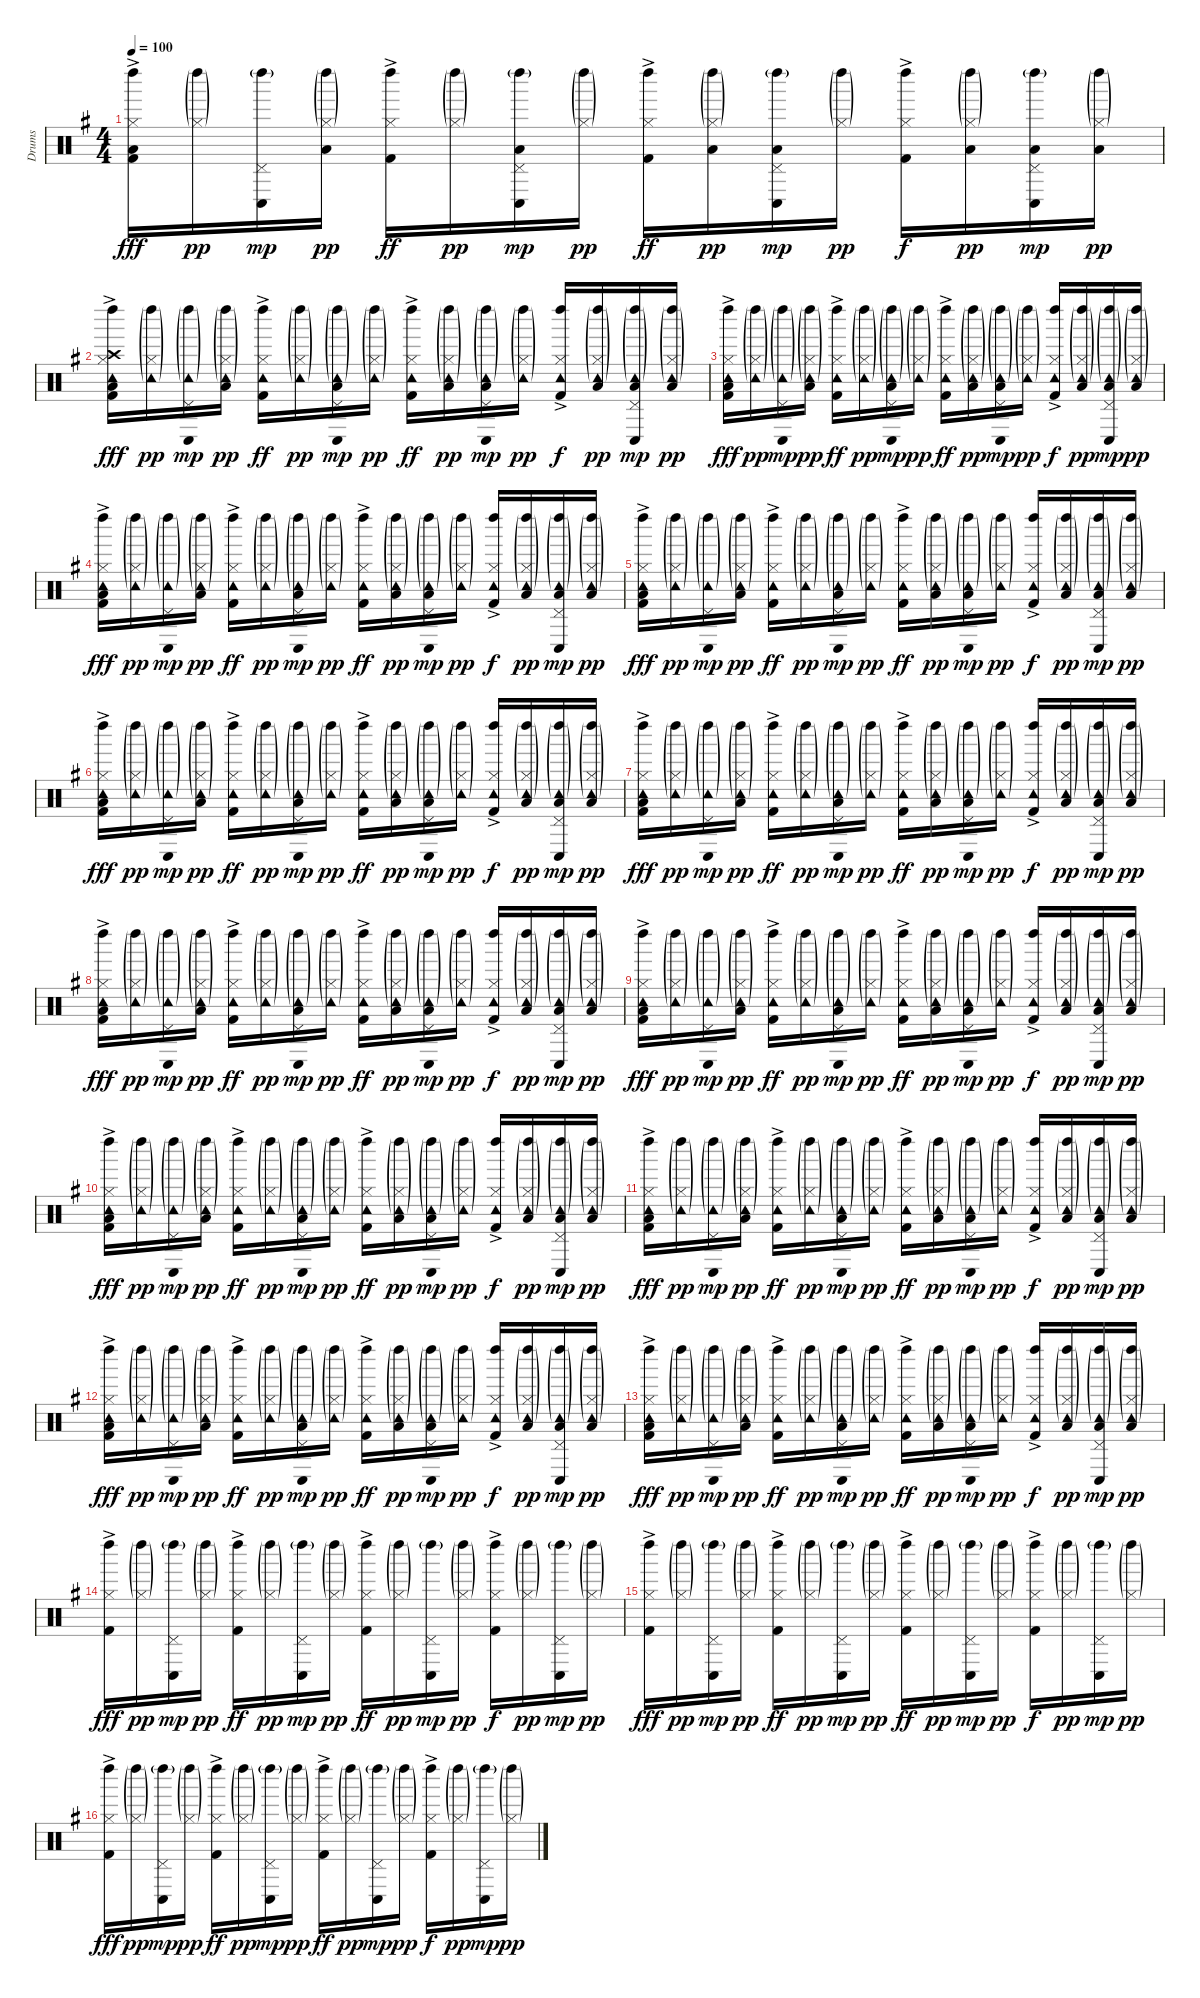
\track ("Drums" "Drums") {instrument percussion}
\staff {score}
\articulation defaults
\ts (4 4)
\tempo 100
\clef neutral
\ks g
("Kick (hit) 2"{ac} "Low Floor Tom (hit)" "Hi-Hat (closed)" "Left Maraca (hit)").16{dy fff} ("Hi-Hat (closed)"{g} "Left Maraca (hit)"{g}).16{dy pp} ("Conga low (hit)" "Pedal Hi-Hat (hit)" "Left Maraca (hit)"{g}).16{dy mp} ("Low Floor Tom (hit)" "Hi-Hat (closed)"{g} "Left Maraca (hit)"{g}).16{dy pp} ("Kick (hit) 2"{ac} "Hi-Hat (closed)" "Left Maraca (hit)").16{dy ff} ("Hi-Hat (closed)"{g} "Left Maraca (hit)"{g}).16{dy pp} ("Low Floor Tom (hit)" "Conga low (hit)" "Pedal Hi-Hat (hit)" "Left Maraca (hit)"{g}).16{dy mp} ("Hi-Hat (closed)"{g} "Left Maraca (hit)"{g}).16{dy pp} ("Kick (hit) 2"{ac} "Hi-Hat (closed)" "Left Maraca (hit)").16{dy ff} ("Low Floor Tom (hit)" "Hi-Hat (closed)"{g} "Left Maraca (hit)"{g}).16{dy pp} ("Low Floor Tom (hit)" "Conga low (hit)" "Pedal Hi-Hat (hit)" "Left Maraca (hit)"{g}).16{dy mp} ("Hi-Hat (closed)"{g} "Left Maraca (hit)"{g}).16{dy pp} ("Kick (hit) 2"{ac} "Hi-Hat (closed)" "Left Maraca (hit)").16{dy f} ("Low Floor Tom (hit)" "Hi-Hat (closed)"{g} "Left Maraca (hit)"{g}).16{dy pp} ("Low Floor Tom (hit)" "Conga low (hit)" "Pedal Hi-Hat (hit)" "Left Maraca (hit)"{g}).16{dy mp} ("Low Floor Tom (hit)" "Hi-Hat (closed)"{g} "Left Maraca (hit)"{g}).16{dy pp} |
("Kick (hit) 2"{ac} "Low Floor Tom (hit)" "Crash high (hit)" "Hi-Hat (closed)" "Tambourine (hit)" "Left Maraca (hit)").16{dy fff} ("Hi-Hat (closed)"{g} "Tambourine (hit)"{g} "Left Maraca (hit)"{g}).16{dy pp} ("Conga low (hit)" "Pedal Hi-Hat (hit)" "Tambourine (hit)"{g} "Left Maraca (hit)"{g}).16{dy mp} ("Low Floor Tom (hit)" "Hi-Hat (closed)"{g} "Tambourine (hit)"{g} "Left Maraca (hit)"{g}).16{dy pp} ("Kick (hit) 2"{ac} "Hi-Hat (closed)" "Tambourine (hit)" "Left Maraca (hit)").16{dy ff} ("Hi-Hat (closed)"{g} "Tambourine (hit)"{g} "Left Maraca (hit)"{g}).16{dy pp} ("Low Floor Tom (hit)" "Conga low (hit)" "Pedal Hi-Hat (hit)" "Tambourine (hit)"{g} "Left Maraca (hit)"{g}).16{dy mp} ("Hi-Hat (closed)"{g} "Tambourine (hit)"{g} "Left Maraca (hit)"{g}).16{dy pp} ("Kick (hit) 2"{ac} "Hi-Hat (closed)" "Tambourine (hit)" "Left Maraca (hit)").16{dy ff} ("Low Floor Tom (hit)" "Hi-Hat (closed)"{g} "Tambourine (hit)"{g} "Left Maraca (hit)"{g}).16{dy pp} ("Low Floor Tom (hit)" "Conga low (hit)" "Pedal Hi-Hat (hit)" "Tambourine (hit)"{g} "Left Maraca (hit)"{g}).16{dy mp} ("Hi-Hat (closed)"{g} "Tambourine (hit)"{g} "Left Maraca (hit)"{g}).16{dy pp} ("Kick (hit) 2"{ac} "Hi-Hat (closed)" "Tambourine (hit)" "Left Maraca (hit)").16{dy f} ("Low Floor Tom (hit)" "Hi-Hat (closed)"{g} "Tambourine (hit)"{g} "Left Maraca (hit)"{g}).16{dy pp} ("Low Floor Tom (hit)" "Conga low (hit)" "Pedal Hi-Hat (hit)" "Tambourine (hit)"{g} "Left Maraca (hit)"{g}).16{dy mp} ("Low Floor Tom (hit)" "Hi-Hat (closed)"{g} "Tambourine (hit)"{g} "Left Maraca (hit)"{g}).16{dy pp} |
("Kick (hit) 2"{ac} "Low Floor Tom (hit)" "Hi-Hat (closed)" "Tambourine (hit)" "Left Maraca (hit)").16{dy fff} ("Hi-Hat (closed)"{g} "Tambourine (hit)"{g} "Left Maraca (hit)"{g}).16{dy pp} ("Conga low (hit)" "Pedal Hi-Hat (hit)" "Tambourine (hit)"{g} "Left Maraca (hit)"{g}).16{dy mp} ("Low Floor Tom (hit)" "Hi-Hat (closed)"{g} "Tambourine (hit)"{g} "Left Maraca (hit)"{g}).16{dy pp} ("Kick (hit) 2"{ac} "Hi-Hat (closed)" "Tambourine (hit)" "Left Maraca (hit)").16{dy ff} ("Hi-Hat (closed)"{g} "Tambourine (hit)"{g} "Left Maraca (hit)"{g}).16{dy pp} ("Low Floor Tom (hit)" "Conga low (hit)" "Pedal Hi-Hat (hit)" "Tambourine (hit)"{g} "Left Maraca (hit)"{g}).16{dy mp} ("Hi-Hat (closed)"{g} "Tambourine (hit)"{g} "Left Maraca (hit)"{g}).16{dy pp} ("Kick (hit) 2"{ac} "Hi-Hat (closed)" "Tambourine (hit)" "Left Maraca (hit)").16{dy ff} ("Low Floor Tom (hit)" "Hi-Hat (closed)"{g} "Tambourine (hit)"{g} "Left Maraca (hit)"{g}).16{dy pp} ("Low Floor Tom (hit)" "Conga low (hit)" "Pedal Hi-Hat (hit)" "Tambourine (hit)"{g} "Left Maraca (hit)"{g}).16{dy mp} ("Hi-Hat (closed)"{g} "Tambourine (hit)"{g} "Left Maraca (hit)"{g}).16{dy pp} ("Kick (hit) 2"{ac} "Hi-Hat (closed)" "Tambourine (hit)" "Left Maraca (hit)").16{dy f} ("Low Floor Tom (hit)" "Hi-Hat (closed)"{g} "Tambourine (hit)"{g} "Left Maraca (hit)"{g}).16{dy pp} ("Low Floor Tom (hit)" "Conga low (hit)" "Pedal Hi-Hat (hit)" "Tambourine (hit)"{g} "Left Maraca (hit)"{g}).16{dy mp} ("Low Floor Tom (hit)" "Hi-Hat (closed)"{g} "Tambourine (hit)"{g} "Left Maraca (hit)"{g}).16{dy pp} |
("Kick (hit) 2"{ac} "Low Floor Tom (hit)" "Hi-Hat (closed)" "Tambourine (hit)" "Left Maraca (hit)").16{dy fff} ("Hi-Hat (closed)"{g} "Tambourine (hit)"{g} "Left Maraca (hit)"{g}).16{dy pp} ("Conga low (hit)" "Pedal Hi-Hat (hit)" "Tambourine (hit)"{g} "Left Maraca (hit)"{g}).16{dy mp} ("Low Floor Tom (hit)" "Hi-Hat (closed)"{g} "Tambourine (hit)"{g} "Left Maraca (hit)"{g}).16{dy pp} ("Kick (hit) 2"{ac} "Hi-Hat (closed)" "Tambourine (hit)" "Left Maraca (hit)").16{dy ff} ("Hi-Hat (closed)"{g} "Tambourine (hit)"{g} "Left Maraca (hit)"{g}).16{dy pp} ("Low Floor Tom (hit)" "Conga low (hit)" "Pedal Hi-Hat (hit)" "Tambourine (hit)"{g} "Left Maraca (hit)"{g}).16{dy mp} ("Hi-Hat (closed)"{g} "Tambourine (hit)"{g} "Left Maraca (hit)"{g}).16{dy pp} ("Kick (hit) 2"{ac} "Hi-Hat (closed)" "Tambourine (hit)" "Left Maraca (hit)").16{dy ff} ("Low Floor Tom (hit)" "Hi-Hat (closed)"{g} "Tambourine (hit)"{g} "Left Maraca (hit)"{g}).16{dy pp} ("Low Floor Tom (hit)" "Conga low (hit)" "Pedal Hi-Hat (hit)" "Tambourine (hit)"{g} "Left Maraca (hit)"{g}).16{dy mp} ("Hi-Hat (closed)"{g} "Tambourine (hit)"{g} "Left Maraca (hit)"{g}).16{dy pp} ("Kick (hit) 2"{ac} "Hi-Hat (closed)" "Tambourine (hit)" "Left Maraca (hit)").16{dy f} ("Low Floor Tom (hit)" "Hi-Hat (closed)"{g} "Tambourine (hit)"{g} "Left Maraca (hit)"{g}).16{dy pp} ("Low Floor Tom (hit)" "Conga low (hit)" "Pedal Hi-Hat (hit)" "Tambourine (hit)"{g} "Left Maraca (hit)"{g}).16{dy mp} ("Low Floor Tom (hit)" "Hi-Hat (closed)"{g} "Tambourine (hit)"{g} "Left Maraca (hit)"{g}).16{dy pp} |
("Kick (hit) 2"{ac} "Low Floor Tom (hit)" "Hi-Hat (closed)" "Tambourine (hit)" "Left Maraca (hit)").16{dy fff} ("Hi-Hat (closed)"{g} "Tambourine (hit)"{g} "Left Maraca (hit)"{g}).16{dy pp} ("Conga low (hit)" "Pedal Hi-Hat (hit)" "Tambourine (hit)"{g} "Left Maraca (hit)"{g}).16{dy mp} ("Low Floor Tom (hit)" "Hi-Hat (closed)"{g} "Tambourine (hit)"{g} "Left Maraca (hit)"{g}).16{dy pp} ("Kick (hit) 2"{ac} "Hi-Hat (closed)" "Tambourine (hit)" "Left Maraca (hit)").16{dy ff} ("Hi-Hat (closed)"{g} "Tambourine (hit)"{g} "Left Maraca (hit)"{g}).16{dy pp} ("Low Floor Tom (hit)" "Conga low (hit)" "Pedal Hi-Hat (hit)" "Tambourine (hit)"{g} "Left Maraca (hit)"{g}).16{dy mp} ("Hi-Hat (closed)"{g} "Tambourine (hit)"{g} "Left Maraca (hit)"{g}).16{dy pp} ("Kick (hit) 2"{ac} "Hi-Hat (closed)" "Tambourine (hit)" "Left Maraca (hit)").16{dy ff} ("Low Floor Tom (hit)" "Hi-Hat (closed)"{g} "Tambourine (hit)"{g} "Left Maraca (hit)"{g}).16{dy pp} ("Low Floor Tom (hit)" "Conga low (hit)" "Pedal Hi-Hat (hit)" "Tambourine (hit)"{g} "Left Maraca (hit)"{g}).16{dy mp} ("Hi-Hat (closed)"{g} "Tambourine (hit)"{g} "Left Maraca (hit)"{g}).16{dy pp} ("Kick (hit) 2"{ac} "Hi-Hat (closed)" "Tambourine (hit)" "Left Maraca (hit)").16{dy f} ("Low Floor Tom (hit)" "Hi-Hat (closed)"{g} "Tambourine (hit)"{g} "Left Maraca (hit)"{g}).16{dy pp} ("Low Floor Tom (hit)" "Conga low (hit)" "Pedal Hi-Hat (hit)" "Tambourine (hit)"{g} "Left Maraca (hit)"{g}).16{dy mp} ("Low Floor Tom (hit)" "Hi-Hat (closed)"{g} "Tambourine (hit)"{g} "Left Maraca (hit)"{g}).16{dy pp} |
("Kick (hit) 2"{ac} "Low Floor Tom (hit)" "Hi-Hat (closed)" "Tambourine (hit)" "Left Maraca (hit)").16{dy fff} ("Hi-Hat (closed)"{g} "Tambourine (hit)"{g} "Left Maraca (hit)"{g}).16{dy pp} ("Conga low (hit)" "Pedal Hi-Hat (hit)" "Tambourine (hit)"{g} "Left Maraca (hit)"{g}).16{dy mp} ("Low Floor Tom (hit)" "Hi-Hat (closed)"{g} "Tambourine (hit)"{g} "Left Maraca (hit)"{g}).16{dy pp} ("Kick (hit) 2"{ac} "Hi-Hat (closed)" "Tambourine (hit)" "Left Maraca (hit)").16{dy ff} ("Hi-Hat (closed)"{g} "Tambourine (hit)"{g} "Left Maraca (hit)"{g}).16{dy pp} ("Low Floor Tom (hit)" "Conga low (hit)" "Pedal Hi-Hat (hit)" "Tambourine (hit)"{g} "Left Maraca (hit)"{g}).16{dy mp} ("Hi-Hat (closed)"{g} "Tambourine (hit)"{g} "Left Maraca (hit)"{g}).16{dy pp} ("Kick (hit) 2"{ac} "Hi-Hat (closed)" "Tambourine (hit)" "Left Maraca (hit)").16{dy ff} ("Low Floor Tom (hit)" "Hi-Hat (closed)"{g} "Tambourine (hit)"{g} "Left Maraca (hit)"{g}).16{dy pp} ("Low Floor Tom (hit)" "Conga low (hit)" "Pedal Hi-Hat (hit)" "Tambourine (hit)"{g} "Left Maraca (hit)"{g}).16{dy mp} ("Hi-Hat (closed)"{g} "Tambourine (hit)"{g} "Left Maraca (hit)"{g}).16{dy pp} ("Kick (hit) 2"{ac} "Hi-Hat (closed)" "Tambourine (hit)" "Left Maraca (hit)").16{dy f} ("Low Floor Tom (hit)" "Hi-Hat (closed)"{g} "Tambourine (hit)"{g} "Left Maraca (hit)"{g}).16{dy pp} ("Low Floor Tom (hit)" "Conga low (hit)" "Pedal Hi-Hat (hit)" "Tambourine (hit)"{g} "Left Maraca (hit)"{g}).16{dy mp} ("Low Floor Tom (hit)" "Hi-Hat (closed)"{g} "Tambourine (hit)"{g} "Left Maraca (hit)"{g}).16{dy pp} |
("Kick (hit) 2"{ac} "Low Floor Tom (hit)" "Hi-Hat (closed)" "Tambourine (hit)" "Left Maraca (hit)").16{dy fff} ("Hi-Hat (closed)"{g} "Tambourine (hit)"{g} "Left Maraca (hit)"{g}).16{dy pp} ("Conga low (hit)" "Pedal Hi-Hat (hit)" "Tambourine (hit)"{g} "Left Maraca (hit)"{g}).16{dy mp} ("Low Floor Tom (hit)" "Hi-Hat (closed)"{g} "Tambourine (hit)"{g} "Left Maraca (hit)"{g}).16{dy pp} ("Kick (hit) 2"{ac} "Hi-Hat (closed)" "Tambourine (hit)" "Left Maraca (hit)").16{dy ff} ("Hi-Hat (closed)"{g} "Tambourine (hit)"{g} "Left Maraca (hit)"{g}).16{dy pp} ("Low Floor Tom (hit)" "Conga low (hit)" "Pedal Hi-Hat (hit)" "Tambourine (hit)"{g} "Left Maraca (hit)"{g}).16{dy mp} ("Hi-Hat (closed)"{g} "Tambourine (hit)"{g} "Left Maraca (hit)"{g}).16{dy pp} ("Kick (hit) 2"{ac} "Hi-Hat (closed)" "Tambourine (hit)" "Left Maraca (hit)").16{dy ff} ("Low Floor Tom (hit)" "Hi-Hat (closed)"{g} "Tambourine (hit)"{g} "Left Maraca (hit)"{g}).16{dy pp} ("Low Floor Tom (hit)" "Conga low (hit)" "Pedal Hi-Hat (hit)" "Tambourine (hit)"{g} "Left Maraca (hit)"{g}).16{dy mp} ("Hi-Hat (closed)"{g} "Tambourine (hit)"{g} "Left Maraca (hit)"{g}).16{dy pp} ("Kick (hit) 2"{ac} "Hi-Hat (closed)" "Tambourine (hit)" "Left Maraca (hit)").16{dy f} ("Low Floor Tom (hit)" "Hi-Hat (closed)"{g} "Tambourine (hit)"{g} "Left Maraca (hit)"{g}).16{dy pp} ("Low Floor Tom (hit)" "Conga low (hit)" "Pedal Hi-Hat (hit)" "Tambourine (hit)"{g} "Left Maraca (hit)"{g}).16{dy mp} ("Low Floor Tom (hit)" "Hi-Hat (closed)"{g} "Tambourine (hit)"{g} "Left Maraca (hit)"{g}).16{dy pp} |
("Kick (hit) 2"{ac} "Low Floor Tom (hit)" "Hi-Hat (closed)" "Tambourine (hit)" "Left Maraca (hit)").16{dy fff} ("Hi-Hat (closed)"{g} "Tambourine (hit)"{g} "Left Maraca (hit)"{g}).16{dy pp} ("Conga low (hit)" "Pedal Hi-Hat (hit)" "Tambourine (hit)"{g} "Left Maraca (hit)"{g}).16{dy mp} ("Low Floor Tom (hit)" "Hi-Hat (closed)"{g} "Tambourine (hit)"{g} "Left Maraca (hit)"{g}).16{dy pp} ("Kick (hit) 2"{ac} "Hi-Hat (closed)" "Tambourine (hit)" "Left Maraca (hit)").16{dy ff} ("Hi-Hat (closed)"{g} "Tambourine (hit)"{g} "Left Maraca (hit)"{g}).16{dy pp} ("Low Floor Tom (hit)" "Conga low (hit)" "Pedal Hi-Hat (hit)" "Tambourine (hit)"{g} "Left Maraca (hit)"{g}).16{dy mp} ("Hi-Hat (closed)"{g} "Tambourine (hit)"{g} "Left Maraca (hit)"{g}).16{dy pp} ("Kick (hit) 2"{ac} "Hi-Hat (closed)" "Tambourine (hit)" "Left Maraca (hit)").16{dy ff} ("Low Floor Tom (hit)" "Hi-Hat (closed)"{g} "Tambourine (hit)"{g} "Left Maraca (hit)"{g}).16{dy pp} ("Low Floor Tom (hit)" "Conga low (hit)" "Pedal Hi-Hat (hit)" "Tambourine (hit)"{g} "Left Maraca (hit)"{g}).16{dy mp} ("Hi-Hat (closed)"{g} "Tambourine (hit)"{g} "Left Maraca (hit)"{g}).16{dy pp} ("Kick (hit) 2"{ac} "Hi-Hat (closed)" "Tambourine (hit)" "Left Maraca (hit)").16{dy f} ("Low Floor Tom (hit)" "Hi-Hat (closed)"{g} "Tambourine (hit)"{g} "Left Maraca (hit)"{g}).16{dy pp} ("Low Floor Tom (hit)" "Conga low (hit)" "Pedal Hi-Hat (hit)" "Tambourine (hit)"{g} "Left Maraca (hit)"{g}).16{dy mp} ("Low Floor Tom (hit)" "Hi-Hat (closed)"{g} "Tambourine (hit)"{g} "Left Maraca (hit)"{g}).16{dy pp} |
("Kick (hit) 2"{ac} "Low Floor Tom (hit)" "Hi-Hat (closed)" "Tambourine (hit)" "Left Maraca (hit)").16{dy fff} ("Hi-Hat (closed)"{g} "Tambourine (hit)"{g} "Left Maraca (hit)"{g}).16{dy pp} ("Conga low (hit)" "Pedal Hi-Hat (hit)" "Tambourine (hit)"{g} "Left Maraca (hit)"{g}).16{dy mp} ("Low Floor Tom (hit)" "Hi-Hat (closed)"{g} "Tambourine (hit)"{g} "Left Maraca (hit)"{g}).16{dy pp} ("Kick (hit) 2"{ac} "Hi-Hat (closed)" "Tambourine (hit)" "Left Maraca (hit)").16{dy ff} ("Hi-Hat (closed)"{g} "Tambourine (hit)"{g} "Left Maraca (hit)"{g}).16{dy pp} ("Low Floor Tom (hit)" "Conga low (hit)" "Pedal Hi-Hat (hit)" "Tambourine (hit)"{g} "Left Maraca (hit)"{g}).16{dy mp} ("Hi-Hat (closed)"{g} "Tambourine (hit)"{g} "Left Maraca (hit)"{g}).16{dy pp} ("Kick (hit) 2"{ac} "Hi-Hat (closed)" "Tambourine (hit)" "Left Maraca (hit)").16{dy ff} ("Low Floor Tom (hit)" "Hi-Hat (closed)"{g} "Tambourine (hit)"{g} "Left Maraca (hit)"{g}).16{dy pp} ("Low Floor Tom (hit)" "Conga low (hit)" "Pedal Hi-Hat (hit)" "Tambourine (hit)"{g} "Left Maraca (hit)"{g}).16{dy mp} ("Hi-Hat (closed)"{g} "Tambourine (hit)"{g} "Left Maraca (hit)"{g}).16{dy pp} ("Kick (hit) 2"{ac} "Hi-Hat (closed)" "Tambourine (hit)" "Left Maraca (hit)").16{dy f} ("Low Floor Tom (hit)" "Hi-Hat (closed)"{g} "Tambourine (hit)"{g} "Left Maraca (hit)"{g}).16{dy pp} ("Low Floor Tom (hit)" "Conga low (hit)" "Pedal Hi-Hat (hit)" "Tambourine (hit)"{g} "Left Maraca (hit)"{g}).16{dy mp} ("Low Floor Tom (hit)" "Hi-Hat (closed)"{g} "Tambourine (hit)"{g} "Left Maraca (hit)"{g}).16{dy pp} |
("Kick (hit) 2"{ac} "Low Floor Tom (hit)" "Hi-Hat (closed)" "Tambourine (hit)" "Left Maraca (hit)").16{dy fff} ("Hi-Hat (closed)"{g} "Tambourine (hit)"{g} "Left Maraca (hit)"{g}).16{dy pp} ("Conga low (hit)" "Pedal Hi-Hat (hit)" "Tambourine (hit)"{g} "Left Maraca (hit)"{g}).16{dy mp} ("Low Floor Tom (hit)" "Hi-Hat (closed)"{g} "Tambourine (hit)"{g} "Left Maraca (hit)"{g}).16{dy pp} ("Kick (hit) 2"{ac} "Hi-Hat (closed)" "Tambourine (hit)" "Left Maraca (hit)").16{dy ff} ("Hi-Hat (closed)"{g} "Tambourine (hit)"{g} "Left Maraca (hit)"{g}).16{dy pp} ("Low Floor Tom (hit)" "Conga low (hit)" "Pedal Hi-Hat (hit)" "Tambourine (hit)"{g} "Left Maraca (hit)"{g}).16{dy mp} ("Hi-Hat (closed)"{g} "Tambourine (hit)"{g} "Left Maraca (hit)"{g}).16{dy pp} ("Kick (hit) 2"{ac} "Hi-Hat (closed)" "Tambourine (hit)" "Left Maraca (hit)").16{dy ff} ("Low Floor Tom (hit)" "Hi-Hat (closed)"{g} "Tambourine (hit)"{g} "Left Maraca (hit)"{g}).16{dy pp} ("Low Floor Tom (hit)" "Conga low (hit)" "Pedal Hi-Hat (hit)" "Tambourine (hit)"{g} "Left Maraca (hit)"{g}).16{dy mp} ("Hi-Hat (closed)"{g} "Tambourine (hit)"{g} "Left Maraca (hit)"{g}).16{dy pp} ("Kick (hit) 2"{ac} "Hi-Hat (closed)" "Tambourine (hit)" "Left Maraca (hit)").16{dy f} ("Low Floor Tom (hit)" "Hi-Hat (closed)"{g} "Tambourine (hit)"{g} "Left Maraca (hit)"{g}).16{dy pp} ("Low Floor Tom (hit)" "Conga low (hit)" "Pedal Hi-Hat (hit)" "Tambourine (hit)"{g} "Left Maraca (hit)"{g}).16{dy mp} ("Low Floor Tom (hit)" "Hi-Hat (closed)"{g} "Tambourine (hit)"{g} "Left Maraca (hit)"{g}).16{dy pp} |
("Kick (hit) 2"{ac} "Low Floor Tom (hit)" "Hi-Hat (closed)" "Tambourine (hit)" "Left Maraca (hit)").16{dy fff} ("Hi-Hat (closed)"{g} "Tambourine (hit)"{g} "Left Maraca (hit)"{g}).16{dy pp} ("Conga low (hit)" "Pedal Hi-Hat (hit)" "Tambourine (hit)"{g} "Left Maraca (hit)"{g}).16{dy mp} ("Low Floor Tom (hit)" "Hi-Hat (closed)"{g} "Tambourine (hit)"{g} "Left Maraca (hit)"{g}).16{dy pp} ("Kick (hit) 2"{ac} "Hi-Hat (closed)" "Tambourine (hit)" "Left Maraca (hit)").16{dy ff} ("Hi-Hat (closed)"{g} "Tambourine (hit)"{g} "Left Maraca (hit)"{g}).16{dy pp} ("Low Floor Tom (hit)" "Conga low (hit)" "Pedal Hi-Hat (hit)" "Tambourine (hit)"{g} "Left Maraca (hit)"{g}).16{dy mp} ("Hi-Hat (closed)"{g} "Tambourine (hit)"{g} "Left Maraca (hit)"{g}).16{dy pp} ("Kick (hit) 2"{ac} "Hi-Hat (closed)" "Tambourine (hit)" "Left Maraca (hit)").16{dy ff} ("Low Floor Tom (hit)" "Hi-Hat (closed)"{g} "Tambourine (hit)"{g} "Left Maraca (hit)"{g}).16{dy pp} ("Low Floor Tom (hit)" "Conga low (hit)" "Pedal Hi-Hat (hit)" "Tambourine (hit)"{g} "Left Maraca (hit)"{g}).16{dy mp} ("Hi-Hat (closed)"{g} "Tambourine (hit)"{g} "Left Maraca (hit)"{g}).16{dy pp} ("Kick (hit) 2"{ac} "Hi-Hat (closed)" "Tambourine (hit)" "Left Maraca (hit)").16{dy f} ("Low Floor Tom (hit)" "Hi-Hat (closed)"{g} "Tambourine (hit)"{g} "Left Maraca (hit)"{g}).16{dy pp} ("Low Floor Tom (hit)" "Conga low (hit)" "Pedal Hi-Hat (hit)" "Tambourine (hit)"{g} "Left Maraca (hit)"{g}).16{dy mp} ("Low Floor Tom (hit)" "Hi-Hat (closed)"{g} "Tambourine (hit)"{g} "Left Maraca (hit)"{g}).16{dy pp} |
("Kick (hit) 2"{ac} "Low Floor Tom (hit)" "Hi-Hat (closed)" "Tambourine (hit)" "Left Maraca (hit)").16{dy fff} ("Hi-Hat (closed)"{g} "Tambourine (hit)"{g} "Left Maraca (hit)"{g}).16{dy pp} ("Conga low (hit)" "Pedal Hi-Hat (hit)" "Tambourine (hit)"{g} "Left Maraca (hit)"{g}).16{dy mp} ("Low Floor Tom (hit)" "Hi-Hat (closed)"{g} "Tambourine (hit)"{g} "Left Maraca (hit)"{g}).16{dy pp} ("Kick (hit) 2"{ac} "Hi-Hat (closed)" "Tambourine (hit)" "Left Maraca (hit)").16{dy ff} ("Hi-Hat (closed)"{g} "Tambourine (hit)"{g} "Left Maraca (hit)"{g}).16{dy pp} ("Low Floor Tom (hit)" "Conga low (hit)" "Pedal Hi-Hat (hit)" "Tambourine (hit)"{g} "Left Maraca (hit)"{g}).16{dy mp} ("Hi-Hat (closed)"{g} "Tambourine (hit)"{g} "Left Maraca (hit)"{g}).16{dy pp} ("Kick (hit) 2"{ac} "Hi-Hat (closed)" "Tambourine (hit)" "Left Maraca (hit)").16{dy ff} ("Low Floor Tom (hit)" "Hi-Hat (closed)"{g} "Tambourine (hit)"{g} "Left Maraca (hit)"{g}).16{dy pp} ("Low Floor Tom (hit)" "Conga low (hit)" "Pedal Hi-Hat (hit)" "Tambourine (hit)"{g} "Left Maraca (hit)"{g}).16{dy mp} ("Hi-Hat (closed)"{g} "Tambourine (hit)"{g} "Left Maraca (hit)"{g}).16{dy pp} ("Kick (hit) 2"{ac} "Hi-Hat (closed)" "Tambourine (hit)" "Left Maraca (hit)").16{dy f} ("Low Floor Tom (hit)" "Hi-Hat (closed)"{g} "Tambourine (hit)"{g} "Left Maraca (hit)"{g}).16{dy pp} ("Low Floor Tom (hit)" "Conga low (hit)" "Pedal Hi-Hat (hit)" "Tambourine (hit)"{g} "Left Maraca (hit)"{g}).16{dy mp} ("Low Floor Tom (hit)" "Hi-Hat (closed)"{g} "Tambourine (hit)"{g} "Left Maraca (hit)"{g}).16{dy pp} |
("Kick (hit) 2"{ac} "Low Floor Tom (hit)" "Hi-Hat (closed)" "Tambourine (hit)" "Left Maraca (hit)").16{dy fff} ("Hi-Hat (closed)"{g} "Tambourine (hit)"{g} "Left Maraca (hit)"{g}).16{dy pp} ("Conga low (hit)" "Pedal Hi-Hat (hit)" "Tambourine (hit)"{g} "Left Maraca (hit)"{g}).16{dy mp} ("Low Floor Tom (hit)" "Hi-Hat (closed)"{g} "Tambourine (hit)"{g} "Left Maraca (hit)"{g}).16{dy pp} ("Kick (hit) 2"{ac} "Hi-Hat (closed)" "Tambourine (hit)" "Left Maraca (hit)").16{dy ff} ("Hi-Hat (closed)"{g} "Tambourine (hit)"{g} "Left Maraca (hit)"{g}).16{dy pp} ("Low Floor Tom (hit)" "Conga low (hit)" "Pedal Hi-Hat (hit)" "Tambourine (hit)"{g} "Left Maraca (hit)"{g}).16{dy mp} ("Hi-Hat (closed)"{g} "Tambourine (hit)"{g} "Left Maraca (hit)"{g}).16{dy pp} ("Kick (hit) 2"{ac} "Hi-Hat (closed)" "Tambourine (hit)" "Left Maraca (hit)").16{dy ff} ("Low Floor Tom (hit)" "Hi-Hat (closed)"{g} "Tambourine (hit)"{g} "Left Maraca (hit)"{g}).16{dy pp} ("Low Floor Tom (hit)" "Conga low (hit)" "Pedal Hi-Hat (hit)" "Tambourine (hit)"{g} "Left Maraca (hit)"{g}).16{dy mp} ("Hi-Hat (closed)"{g} "Tambourine (hit)"{g} "Left Maraca (hit)"{g}).16{dy pp} ("Kick (hit) 2"{ac} "Hi-Hat (closed)" "Tambourine (hit)" "Left Maraca (hit)").16{dy f} ("Low Floor Tom (hit)" "Hi-Hat (closed)"{g} "Tambourine (hit)"{g} "Left Maraca (hit)"{g}).16{dy pp} ("Low Floor Tom (hit)" "Conga low (hit)" "Pedal Hi-Hat (hit)" "Tambourine (hit)"{g} "Left Maraca (hit)"{g}).16{dy mp} ("Low Floor Tom (hit)" "Hi-Hat (closed)"{g} "Tambourine (hit)"{g} "Left Maraca (hit)"{g}).16{dy pp} |
("Kick (hit) 2"{ac} "Hi-Hat (closed)" "Left Maraca (hit)").16{dy fff} ("Hi-Hat (closed)"{g} "Left Maraca (hit)"{g}).16{dy pp} ("Pedal Hi-Hat (hit)" "Conga low (hit)" "Left Maraca (hit)"{g}).16{dy mp} ("Hi-Hat (closed)"{g} "Left Maraca (hit)"{g}).16{dy pp} ("Kick (hit) 2"{ac} "Hi-Hat (closed)" "Left Maraca (hit)").16{dy ff} ("Hi-Hat (closed)"{g} "Left Maraca (hit)"{g}).16{dy pp} ("Pedal Hi-Hat (hit)" "Conga low (hit)" "Left Maraca (hit)"{g}).16{dy mp} ("Hi-Hat (closed)"{g} "Left Maraca (hit)"{g}).16{dy pp} ("Kick (hit) 2"{ac} "Hi-Hat (closed)" "Left Maraca (hit)").16{dy ff} ("Hi-Hat (closed)"{g} "Left Maraca (hit)"{g}).16{dy pp} ("Pedal Hi-Hat (hit)" "Conga low (hit)" "Left Maraca (hit)"{g}).16{dy mp} ("Hi-Hat (closed)"{g} "Left Maraca (hit)"{g}).16{dy pp} ("Kick (hit) 2"{ac} "Hi-Hat (closed)" "Left Maraca (hit)").16{dy f} ("Hi-Hat (closed)"{g} "Left Maraca (hit)"{g}).16{dy pp} ("Pedal Hi-Hat (hit)" "Conga low (hit)" "Left Maraca (hit)"{g}).16{dy mp} ("Hi-Hat (closed)"{g} "Left Maraca (hit)"{g}).16{dy pp} |
("Kick (hit) 2"{ac} "Hi-Hat (closed)" "Left Maraca (hit)").16{dy fff} ("Hi-Hat (closed)"{g} "Left Maraca (hit)"{g}).16{dy pp} ("Pedal Hi-Hat (hit)" "Conga low (hit)" "Left Maraca (hit)"{g}).16{dy mp} ("Hi-Hat (closed)"{g} "Left Maraca (hit)"{g}).16{dy pp} ("Kick (hit) 2"{ac} "Hi-Hat (closed)" "Left Maraca (hit)").16{dy ff} ("Hi-Hat (closed)"{g} "Left Maraca (hit)"{g}).16{dy pp} ("Pedal Hi-Hat (hit)" "Conga low (hit)" "Left Maraca (hit)"{g}).16{dy mp} ("Hi-Hat (closed)"{g} "Left Maraca (hit)"{g}).16{dy pp} ("Kick (hit) 2"{ac} "Hi-Hat (closed)" "Left Maraca (hit)").16{dy ff} ("Hi-Hat (closed)"{g} "Left Maraca (hit)"{g}).16{dy pp} ("Pedal Hi-Hat (hit)" "Conga low (hit)" "Left Maraca (hit)"{g}).16{dy mp} ("Hi-Hat (closed)"{g} "Left Maraca (hit)"{g}).16{dy pp} ("Kick (hit) 2"{ac} "Hi-Hat (closed)" "Left Maraca (hit)").16{dy f} ("Hi-Hat (closed)"{g} "Left Maraca (hit)"{g}).16{dy pp} ("Pedal Hi-Hat (hit)" "Conga low (hit)" "Left Maraca (hit)"{g}).16{dy mp} ("Hi-Hat (closed)"{g} "Left Maraca (hit)"{g}).16{dy pp} |
("Kick (hit) 2"{ac} "Hi-Hat (closed)" "Left Maraca (hit)").16{dy fff} ("Hi-Hat (closed)"{g} "Left Maraca (hit)"{g}).16{dy pp} ("Pedal Hi-Hat (hit)" "Conga low (hit)" "Left Maraca (hit)"{g}).16{dy mp} ("Hi-Hat (closed)"{g} "Left Maraca (hit)"{g}).16{dy pp} ("Kick (hit) 2"{ac} "Hi-Hat (closed)" "Left Maraca (hit)").16{dy ff} ("Hi-Hat (closed)"{g} "Left Maraca (hit)"{g}).16{dy pp} ("Pedal Hi-Hat (hit)" "Conga low (hit)" "Left Maraca (hit)"{g}).16{dy mp} ("Hi-Hat (closed)"{g} "Left Maraca (hit)"{g}).16{dy pp} ("Kick (hit) 2"{ac} "Hi-Hat (closed)" "Left Maraca (hit)").16{dy ff} ("Hi-Hat (closed)"{g} "Left Maraca (hit)"{g}).16{dy pp} ("Pedal Hi-Hat (hit)" "Conga low (hit)" "Left Maraca (hit)"{g}).16{dy mp} ("Hi-Hat (closed)"{g} "Left Maraca (hit)"{g}).16{dy pp} ("Kick (hit) 2"{ac} "Hi-Hat (closed)" "Left Maraca (hit)").16{dy f} ("Hi-Hat (closed)"{g} "Left Maraca (hit)"{g}).16{dy pp} ("Pedal Hi-Hat (hit)" "Conga low (hit)" "Left Maraca (hit)"{g}).16{dy mp} ("Hi-Hat (closed)"{g} "Left Maraca (hit)"{g}).16{dy pp}
